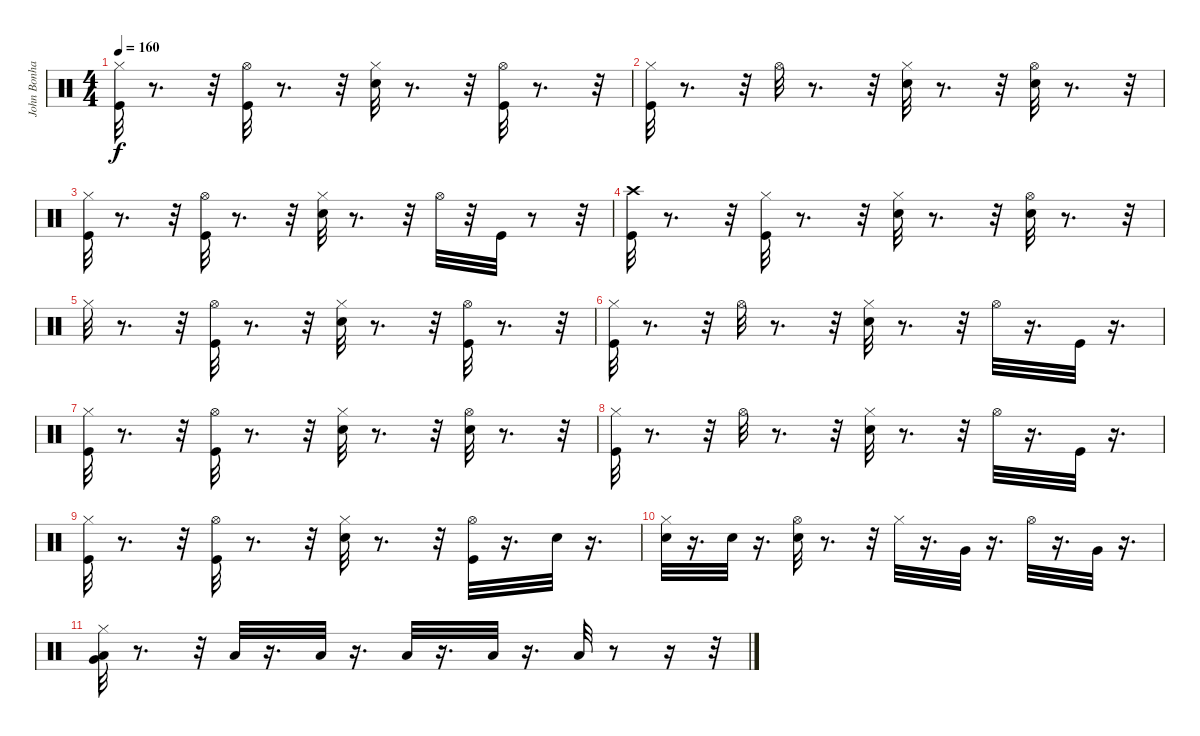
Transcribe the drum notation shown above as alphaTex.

\track ("John Bonham" "John Bonha") {instrument percussion}
\staff {score}
\articulation defaults
\ts (4 4)
\tempo 160
\clef neutral
\ks c
("Hi-Hat (closed)" "Kick (hit)").32{dy f volume 9} r.8{d} r.32 ("Hi-Hat (open)" "Kick (hit)").32{volume 9} r.8{d} r.32 ("Hi-Hat (closed)" "Snare (hit) 2").32{volume 9} r.8{d} r.32 ("Hi-Hat (open)" "Kick (hit)").32{volume 9} r.8{d} r.32 |
("Hi-Hat (closed)" "Kick (hit)").32{volume 8} r.8{d} r.32 "Hi-Hat (open)".32{volume 8} r.8{d} r.32 ("Snare (hit) 2" "Hi-Hat (closed)").32{volume 8} r.8{d} r.32 ("Snare (hit) 2" "Hi-Hat (open)").32{volume 8} r.8{d} r.32 |
("Hi-Hat (closed)" "Kick (hit)").32{volume 8} r.8{d} r.32 ("Hi-Hat (open)" "Kick (hit)").32{volume 7} r.8{d} r.32 ("Hi-Hat (closed)" "Snare (hit) 2").32{volume 7} r.8{d} r.32 "Hi-Hat (open)".32{volume 7} r.32 "Kick (hit)".32 r.8 r.32 |
("Kick (hit)" "Crash high (hit)").32{volume 7} r.8{d} r.32 ("Hi-Hat (closed)" "Kick (hit)").32{volume 6} r.8{d} r.32 ("Hi-Hat (closed)" "Snare (hit) 2").32{volume 6} r.8{d} r.32 ("Snare (hit) 2" "Hi-Hat (open)").32{volume 6} r.8{d} r.32 |
"Hi-Hat (closed)".32{volume 6} r.8{d} r.32 ("Kick (hit)" "Hi-Hat (open)").32{volume 6} r.8{d} r.32 ("Snare (hit) 2" "Hi-Hat (closed)").32{volume 6} r.8{d} r.32 ("Kick (hit)" "Hi-Hat (open)").32{volume 5} r.8{d} r.32 |
("Kick (hit)" "Hi-Hat (closed)").32{volume 5} r.8{d} r.32 "Hi-Hat (open)".32{volume 5} r.8{d} r.32 ("Snare (hit) 2" "Hi-Hat (closed)").32{volume 5} r.8{d} r.32 "Hi-Hat (open)".32{volume 4} r.16{d} "Kick (hit)".32 r.16{d} |
("Hi-Hat (closed)" "Kick (hit)").32{volume 4} r.8{d} r.32 ("Hi-Hat (open)" "Kick (hit)").32{volume 4} r.8{d} r.32 ("Hi-Hat (closed)" "Snare (hit) 2").32{volume 4} r.8{d} r.32 ("Hi-Hat (open)" "Snare (hit) 2").32{volume 4} r.8{d} r.32 |
("Hi-Hat (closed)" "Kick (hit)").32{volume 3} r.8{d} r.32 "Hi-Hat (open)".32{volume 3} r.8{d} r.32 ("Snare (hit) 2" "Hi-Hat (closed)").32{volume 3} r.8{d} r.32 "Hi-Hat (open)".32{volume 3} r.16{d} "Kick (hit)".32{volume 3} r.16{d} |
("Hi-Hat (closed)" "Kick (hit)").32{volume 2} r.8{d} r.32 ("Hi-Hat (open)" "Kick (hit)").32{volume 2} r.8{d} r.32 ("Hi-Hat (closed)" "Snare (hit) 2").32{volume 2} r.8{d} r.32 ("Hi-Hat (open)" "Kick (hit)").32{volume 2} r.16{d} "Snare (hit) 2".32 r.16{d} |
("Hi-Hat (closed)" "Snare (hit) 2").32{volume 2} r.16{d} "Snare (hit) 2".32{volume 2} r.16{d} ("Snare (hit) 2" "Hi-Hat (open)").32{volume 2} r.8{d} r.32 "Hi-Hat (closed)".32{volume 1} r.16{d} "Very Low Tom (hit)".32 r.16{d} "Hi-Hat (open)".32{volume 1} r.16{d} "Very Low Tom (hit)".32{volume 1} r.16{d} |
("Very Low Tom (hit)" "Hi-Hat (closed)" "Low Floor Tom (hit)").32{volume 1} r.8{d} r.32 "Low Floor Tom (hit)".32{volume 1} r.16{d} "Low Floor Tom (hit)".32 r.16{d} "Low Floor Tom (hit)".32{volume 0} r.16{d} "Low Floor Tom (hit)".32{volume 0} r.16{d} "Low Floor Tom (hit)".32{volume 0} r.8 r.16 r.32
